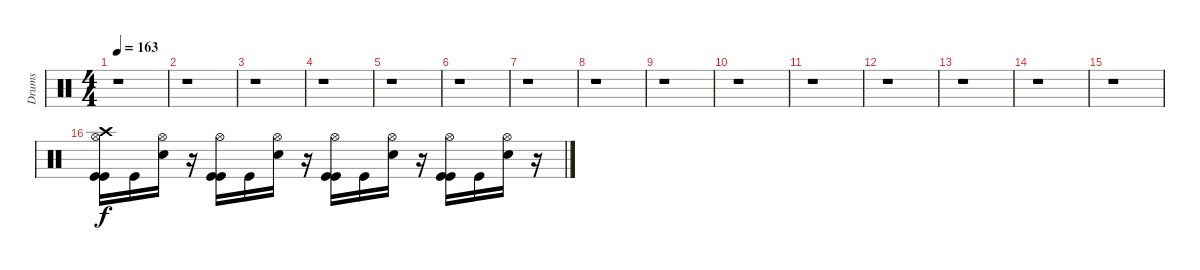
\track ("Drums" "Drums") {instrument percussion}
\staff {score}
\articulation defaults
\ts (4 4)
\tempo 163
\clef neutral
\ks c
r.1{dy f} |
r.1 |
r.1 |
r.1 |
r.1 |
r.1 |
r.1 |
r.1 |
r.1 |
r.1 |
r.1 |
r.1 |
r.1 |
r.1 |
r.1 |
("Crash high (hit)" "Hi-Hat (open)" "Kick (hit)" "Kick (hit)").16 "Kick (hit)".16 ("Hi-Hat (open)" "Electric Snare (hit)").16 r.16 ("Hi-Hat (open)" "Kick (hit)" "Kick (hit)").16 "Kick (hit)".16 ("Hi-Hat (open)" "Electric Snare (hit)").16 r.16 ("Hi-Hat (open)" "Kick (hit)" "Kick (hit)").16 "Kick (hit)".16 ("Hi-Hat (open)" "Electric Snare (hit)").16 r.16 ("Hi-Hat (open)" "Kick (hit)" "Kick (hit)").16 "Kick (hit)".16 ("Hi-Hat (open)" "Electric Snare (hit)").16 r.16
